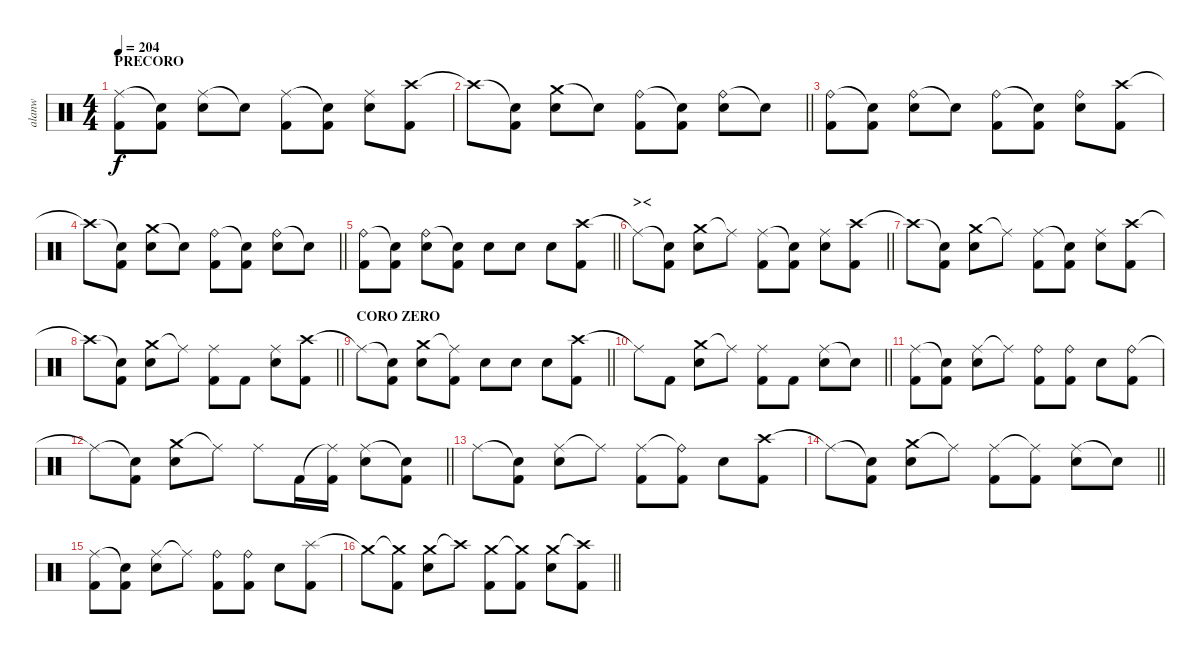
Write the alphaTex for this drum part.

\track ("alanw" "alanw") {instrument percussion}
\staff {score}
\articulation defaults
\ts (4 4)
\section ("" "PRECORO")
\tempo 204
\clef neutral
\ks c
("Ride (middle)" "Kick (hit) 2").8{dy f} ("Snare (hit)"{t} "Kick (hit) 2").8 ("Ride (middle)" "Electric Snare (hit)").8 "Snare (hit)"{t}.8 ("Ride (middle)" "Kick (hit) 2").8 ("Snare (hit)"{t} "Kick (hit) 2").8 ("Ride (middle)" "Electric Snare (hit)").8 ("Crash high (hit)" "Kick (hit) 2").8 |
\barLineRight lightlight "Crash high (hit)"{t}.8
("Snare (hit)"{t} "Kick (hit) 2").8 ("Crash medium (hit)" "Electric Snare (hit)").8 "Snare (hit)"{t}.8 ("Ride (bell)" "Kick (hit) 2").8 ("Snare (hit)"{t} "Kick (hit) 2").8 ("Ride (bell)" "Electric Snare (hit)").8 "Snare (hit)"{t}.8 |
("Ride (bell)" "Kick (hit) 2").8 ("Snare (hit)"{t} "Kick (hit) 2").8 ("Ride (bell)" "Electric Snare (hit)").8 "Snare (hit)"{t}.8 ("Ride (bell)" "Kick (hit) 2").8 ("Snare (hit)"{t} "Kick (hit) 2").8 ("Ride (bell)" "Electric Snare (hit)").8 ("Crash high (hit)" "Kick (hit) 2").8 |
\barLineRight lightlight "Crash high (hit)"{t}.8
("Snare (hit)"{t} "Kick (hit) 2").8 ("Crash medium (hit)" "Electric Snare (hit)").8 "Snare (hit)"{t}.8 ("Ride (bell)" "Kick (hit) 2").8 ("Snare (hit)"{t} "Kick (hit) 2").8 ("Ride (bell)" "Electric Snare (hit)").8 "Snare (hit)"{t}.8 |
\barLineRight lightlight
("Ride (bell)" "Kick (hit) 2").8 ("Snare (hit)"{t} "Kick (hit) 2").8 ("Ride (bell)" "Electric Snare (hit)").8 ("Snare (hit)"{t} "Kick (hit) 2").8 "Electric Snare (hit)".8 "Electric Snare (hit)".8 "Electric Snare (hit)".8 ("Crash high (hit)" "Kick (hit) 2").8 |
\section ("" "><")
\barLineRight lightlight "Ride (middle)"{t}.8
("Snare (hit)"{t} "Kick (hit) 2").8 ("Crash medium (hit)" "Electric Snare (hit)").8 "Ride (middle)"{t}.8 ("Ride (middle)" "Kick (hit) 2").8 ("Snare (hit)"{t} "Kick (hit) 2").8 ("Ride (middle)" "Electric Snare (hit)").8 ("Crash high (hit)" "Kick (hit) 2").8 |
"Crash high (hit)"{t}.8 ("Snare (hit)"{t} "Kick (hit) 2").8 ("Crash medium (hit)" "Electric Snare (hit)").8 "Ride (middle)"{t}.8 ("Ride (middle)" "Kick (hit) 2").8 ("Snare (hit)"{t} "Kick (hit) 2").8 ("Ride (middle)" "Electric Snare (hit)").8 ("Crash high (hit)" "Kick (hit) 2").8 |
\barLineRight lightlight "Crash high (hit)"{t}.8
("Snare (hit)"{t} "Kick (hit) 2").8 ("Crash medium (hit)" "Electric Snare (hit)").8 "Ride (middle)"{t}.8 ("Ride (middle)" "Kick (hit) 2").8 "Kick (hit) 2".8 ("Ride (middle)" "Electric Snare (hit)").8 ("Crash high (hit)" "Kick (hit) 2").8 |
\section ("" "CORO ZERO")
\barLineRight lightlight "Ride (middle)"{t}.8
("Snare (hit)"{t} "Kick (hit) 2").8 ("Crash medium (hit)" "Electric Snare (hit)").8 ("Ride (middle)"{t} "Kick (hit) 2").8 "Electric Snare (hit)".8 "Electric Snare (hit)".8 "Electric Snare (hit)".8 ("Crash high (hit)" "Kick (hit) 2").8 |
\barLineRight lightlight "Ride (middle)"{t}.8 "Kick (hit) 2".8
("Crash medium (hit)" "Electric Snare (hit)").8 "Ride (middle)"{t}.8 ("Ride (middle)" "Kick (hit) 2").8 "Kick (hit) 2".8 ("Ride (middle)" "Electric Snare (hit)").8 "Snare (hit)"{t}.8 |
("Ride (middle)" "Kick (hit) 2").8 ("Snare (hit)"{t} "Kick (hit) 2").8 ("Ride (middle)" "Electric Snare (hit)").8 "Ride (middle)"{t}.8 ("Ride (bell)" "Kick (hit) 2").8 ("Ride (bell)" "Kick (hit) 2").8 "Electric Snare (hit)".8 ("Ride (bell)" "Kick (hit) 2").8 |
\barLineRight lightlight "Ride (middle)"{t}.8
("Snare (hit)"{t} "Kick (hit) 2").8 ("Crash medium (hit)" "Electric Snare (hit)").8 "Ride (middle)"{t}.8 "Ride (middle)".8 "Kick (hit) 2".16 ("Ride (middle)"{t} "Kick (hit) 2").16 ("Ride (middle)" "Electric Snare (hit)").8 ("Snare (hit)"{t} "Kick (hit) 2").8 |
"Ride (middle)".8 ("Snare (hit)"{t} "Kick (hit) 2").8 ("Ride (middle)" "Electric Snare (hit)").8 "Ride (middle)"{t}.8 ("Ride (middle)" "Kick (hit) 2").8 ("Ride (bell)"{t} "Kick (hit) 2").8 "Electric Snare (hit)".8 ("Crash high (hit)" "Kick (hit) 2").8 |
\barLineRight lightlight "Ride (middle)"{t}.8
("Snare (hit)"{t} "Kick (hit) 2").8 ("Crash medium (hit)" "Electric Snare (hit)").8 "Ride (middle)"{t}.8 ("Ride (middle)" "Kick (hit) 2").8 ("Ride (middle)"{t} "Kick (hit) 2").8 ("Ride (middle)" "Electric Snare (hit)").8 "Snare (hit)"{t}.8 |
("Ride (middle)" "Kick (hit) 2").8 ("Snare (hit)"{t} "Kick (hit) 2").8 ("Ride (middle)" "Electric Snare (hit)").8 "Ride (middle)"{t}.8 ("Ride (bell)" "Kick (hit) 2").8 ("Ride (bell)" "Kick (hit) 2").8 "Electric Snare (hit)".8 ("Splash (hit)" "Kick (hit) 2").8 |
\barLineRight lightlight "Crash medium (hit)"{t}.8
("Crash medium (hit)"{t} "Kick (hit) 2").8 ("Crash medium (hit)" "Electric Snare (hit)").8 "Crash high (hit)"{t}.8 ("Crash medium (hit)" "Kick (hit) 2").8 ("Crash medium (hit)"{t} "Kick (hit) 2").8 ("Crash medium (hit)" "Electric Snare (hit)").8 ("Crash high (hit)"{t} "Kick (hit) 2").8
